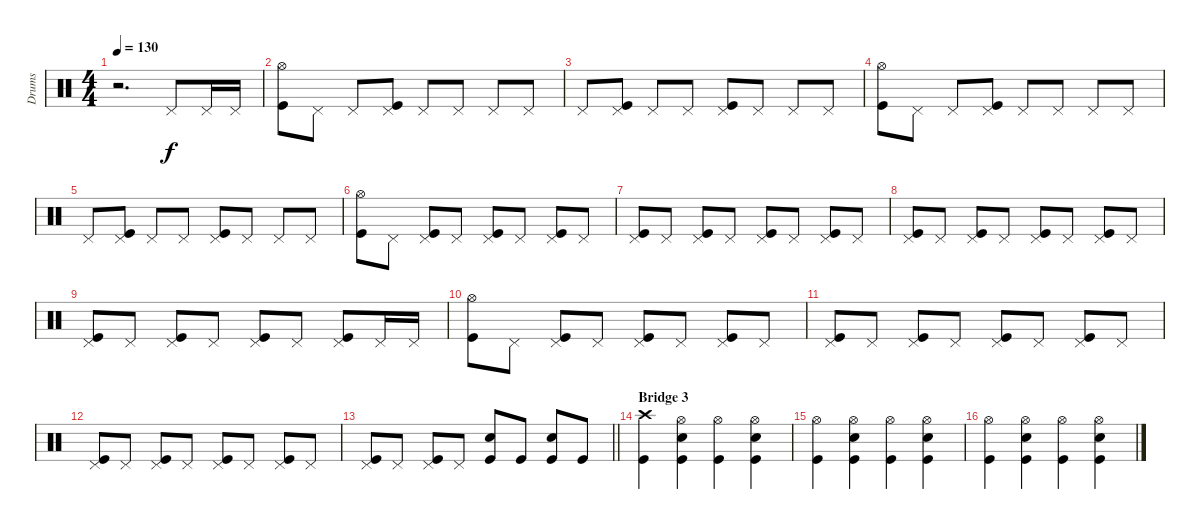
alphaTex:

\track ("Drums" "Drums") {instrument percussion}
\staff {score}
\articulation defaults
\ts (4 4)
\tempo 130
\clef neutral
\ks c
r.2{d dy f} "Pedal Hi-Hat (hit)".8 "Pedal Hi-Hat (hit)".16 "Pedal Hi-Hat (hit)".16 |
("Hi-Hat (open)" "Kick (hit)").8 "Pedal Hi-Hat (hit)".8 "Pedal Hi-Hat (hit)".8 ("Pedal Hi-Hat (hit)" "Kick (hit)").8 "Pedal Hi-Hat (hit)".8 "Pedal Hi-Hat (hit)".8 "Pedal Hi-Hat (hit)".8 "Pedal Hi-Hat (hit)".8 |
"Pedal Hi-Hat (hit)".8 ("Pedal Hi-Hat (hit)" "Kick (hit)").8 "Pedal Hi-Hat (hit)".8 "Pedal Hi-Hat (hit)".8 ("Pedal Hi-Hat (hit)" "Kick (hit)").8 "Pedal Hi-Hat (hit)".8 "Pedal Hi-Hat (hit)".8 "Pedal Hi-Hat (hit)".8 |
("Hi-Hat (open)" "Kick (hit)").8 "Pedal Hi-Hat (hit)".8 "Pedal Hi-Hat (hit)".8 ("Pedal Hi-Hat (hit)" "Kick (hit)").8 "Pedal Hi-Hat (hit)".8 "Pedal Hi-Hat (hit)".8 "Pedal Hi-Hat (hit)".8 "Pedal Hi-Hat (hit)".8 |
"Pedal Hi-Hat (hit)".8 ("Pedal Hi-Hat (hit)" "Kick (hit)").8 "Pedal Hi-Hat (hit)".8 "Pedal Hi-Hat (hit)".8 ("Pedal Hi-Hat (hit)" "Kick (hit)").8 "Pedal Hi-Hat (hit)".8 "Pedal Hi-Hat (hit)".8 "Pedal Hi-Hat (hit)".8 |
("Hi-Hat (open)" "Kick (hit)").8 "Pedal Hi-Hat (hit)".8 ("Pedal Hi-Hat (hit)" "Kick (hit)").8 "Pedal Hi-Hat (hit)".8 ("Kick (hit)" "Pedal Hi-Hat (hit)").8 "Pedal Hi-Hat (hit)".8 ("Kick (hit)" "Pedal Hi-Hat (hit)").8 "Pedal Hi-Hat (hit)".8 |
("Pedal Hi-Hat (hit)" "Kick (hit)").8 "Pedal Hi-Hat (hit)".8 ("Pedal Hi-Hat (hit)" "Kick (hit)").8 "Pedal Hi-Hat (hit)".8 ("Pedal Hi-Hat (hit)" "Kick (hit)").8 "Pedal Hi-Hat (hit)".8 ("Kick (hit)" "Pedal Hi-Hat (hit)").8 "Pedal Hi-Hat (hit)".8 |
("Pedal Hi-Hat (hit)" "Kick (hit)").8 "Pedal Hi-Hat (hit)".8 ("Pedal Hi-Hat (hit)" "Kick (hit)").8 "Pedal Hi-Hat (hit)".8 ("Pedal Hi-Hat (hit)" "Kick (hit)").8 "Pedal Hi-Hat (hit)".8 ("Kick (hit)" "Pedal Hi-Hat (hit)").8 "Pedal Hi-Hat (hit)".8 |
("Pedal Hi-Hat (hit)" "Kick (hit)").8 "Pedal Hi-Hat (hit)".8 ("Pedal Hi-Hat (hit)" "Kick (hit)").8 "Pedal Hi-Hat (hit)".8 ("Pedal Hi-Hat (hit)" "Kick (hit)").8 "Pedal Hi-Hat (hit)".8 ("Kick (hit)" "Pedal Hi-Hat (hit)").8 "Pedal Hi-Hat (hit)".16 "Pedal Hi-Hat (hit)".16 |
("Hi-Hat (open)" "Kick (hit)").8 "Pedal Hi-Hat (hit)".8 ("Pedal Hi-Hat (hit)" "Kick (hit)").8 "Pedal Hi-Hat (hit)".8 ("Kick (hit)" "Pedal Hi-Hat (hit)").8 "Pedal Hi-Hat (hit)".8 ("Kick (hit)" "Pedal Hi-Hat (hit)").8 "Pedal Hi-Hat (hit)".8 |
("Pedal Hi-Hat (hit)" "Kick (hit)").8 "Pedal Hi-Hat (hit)".8 ("Pedal Hi-Hat (hit)" "Kick (hit)").8 "Pedal Hi-Hat (hit)".8 ("Pedal Hi-Hat (hit)" "Kick (hit)").8 "Pedal Hi-Hat (hit)".8 ("Kick (hit)" "Pedal Hi-Hat (hit)").8 "Pedal Hi-Hat (hit)".8 |
("Pedal Hi-Hat (hit)" "Kick (hit)").8 "Pedal Hi-Hat (hit)".8 ("Pedal Hi-Hat (hit)" "Kick (hit)").8 "Pedal Hi-Hat (hit)".8 ("Pedal Hi-Hat (hit)" "Kick (hit)").8 "Pedal Hi-Hat (hit)".8 ("Kick (hit)" "Pedal Hi-Hat (hit)").8 "Pedal Hi-Hat (hit)".8 |
\barLineRight lightlight
("Pedal Hi-Hat (hit)" "Kick (hit)").8 "Pedal Hi-Hat (hit)".8 ("Pedal Hi-Hat (hit)" "Kick (hit)").8 "Pedal Hi-Hat (hit)".8 ("Kick (hit)" "Snare (hit) 2").8 "Kick (hit)".8 ("Kick (hit)" "Snare (hit) 2").8 "Kick (hit)".8 |
\section ("" "Bridge 3")
("Crash high (hit)" "Kick (hit)").4 ("Kick (hit)" "Snare (hit) 2" "Hi-Hat (open)").4 ("Hi-Hat (open)" "Kick (hit)").4 ("Hi-Hat (open)" "Snare (hit) 2" "Kick (hit)").4 |
("Hi-Hat (open)" "Kick (hit)").4 ("Kick (hit)" "Snare (hit) 2" "Hi-Hat (open)").4 ("Hi-Hat (open)" "Kick (hit)").4 ("Hi-Hat (open)" "Snare (hit) 2" "Kick (hit)").4 |
("Hi-Hat (open)" "Kick (hit)").4 ("Kick (hit)" "Snare (hit) 2" "Hi-Hat (open)").4 ("Hi-Hat (open)" "Kick (hit)").4 ("Hi-Hat (open)" "Snare (hit) 2" "Kick (hit)").4
